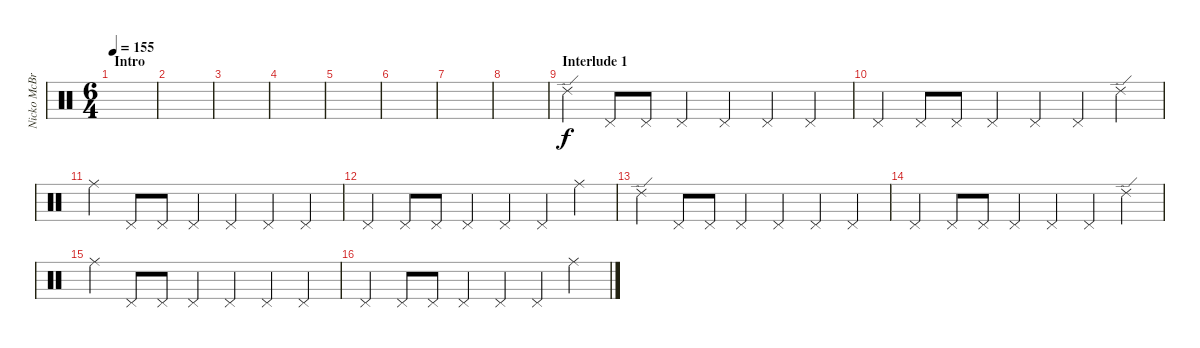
\track ("Nicko McBrain" "Nicko McBr") {instrument percussion}
\staff {score}
\articulation defaults
\ts (6 4)
\section ("" "Intro")
\tempo 155
\clef neutral
\ks c
|
|
|
|
|
|
|
|
\section ("" "Interlude 1")
"Ride (edge) 2".4{balance 0} "Pedal Hi-Hat (hit)".8 "Pedal Hi-Hat (hit)".8 "Pedal Hi-Hat (hit)".4 "Pedal Hi-Hat (hit)".4 "Pedal Hi-Hat (hit)".4 "Pedal Hi-Hat (hit)".4 |
"Pedal Hi-Hat (hit)".4 "Pedal Hi-Hat (hit)".8 "Pedal Hi-Hat (hit)".8 "Pedal Hi-Hat (hit)".4 "Pedal Hi-Hat (hit)".4 "Pedal Hi-Hat (hit)".4 "Ride (edge) 2".4 |
"Ride (middle)".4 "Pedal Hi-Hat (hit)".8 "Pedal Hi-Hat (hit)".8 "Pedal Hi-Hat (hit)".4 "Pedal Hi-Hat (hit)".4 "Pedal Hi-Hat (hit)".4 "Pedal Hi-Hat (hit)".4 |
"Pedal Hi-Hat (hit)".4 "Pedal Hi-Hat (hit)".8 "Pedal Hi-Hat (hit)".8 "Pedal Hi-Hat (hit)".4 "Pedal Hi-Hat (hit)".4 "Pedal Hi-Hat (hit)".4 "Ride (middle)".4 |
"Ride (edge) 2".4{balance 0} "Pedal Hi-Hat (hit)".8 "Pedal Hi-Hat (hit)".8 "Pedal Hi-Hat (hit)".4 "Pedal Hi-Hat (hit)".4 "Pedal Hi-Hat (hit)".4 "Pedal Hi-Hat (hit)".4 |
"Pedal Hi-Hat (hit)".4 "Pedal Hi-Hat (hit)".8 "Pedal Hi-Hat (hit)".8 "Pedal Hi-Hat (hit)".4 "Pedal Hi-Hat (hit)".4 "Pedal Hi-Hat (hit)".4 "Ride (edge) 2".4 |
"Ride (middle)".4 "Pedal Hi-Hat (hit)".8 "Pedal Hi-Hat (hit)".8 "Pedal Hi-Hat (hit)".4 "Pedal Hi-Hat (hit)".4 "Pedal Hi-Hat (hit)".4 "Pedal Hi-Hat (hit)".4 |
"Pedal Hi-Hat (hit)".4 "Pedal Hi-Hat (hit)".8 "Pedal Hi-Hat (hit)".8 "Pedal Hi-Hat (hit)".4 "Pedal Hi-Hat (hit)".4 "Pedal Hi-Hat (hit)".4 "Ride (middle)".4
